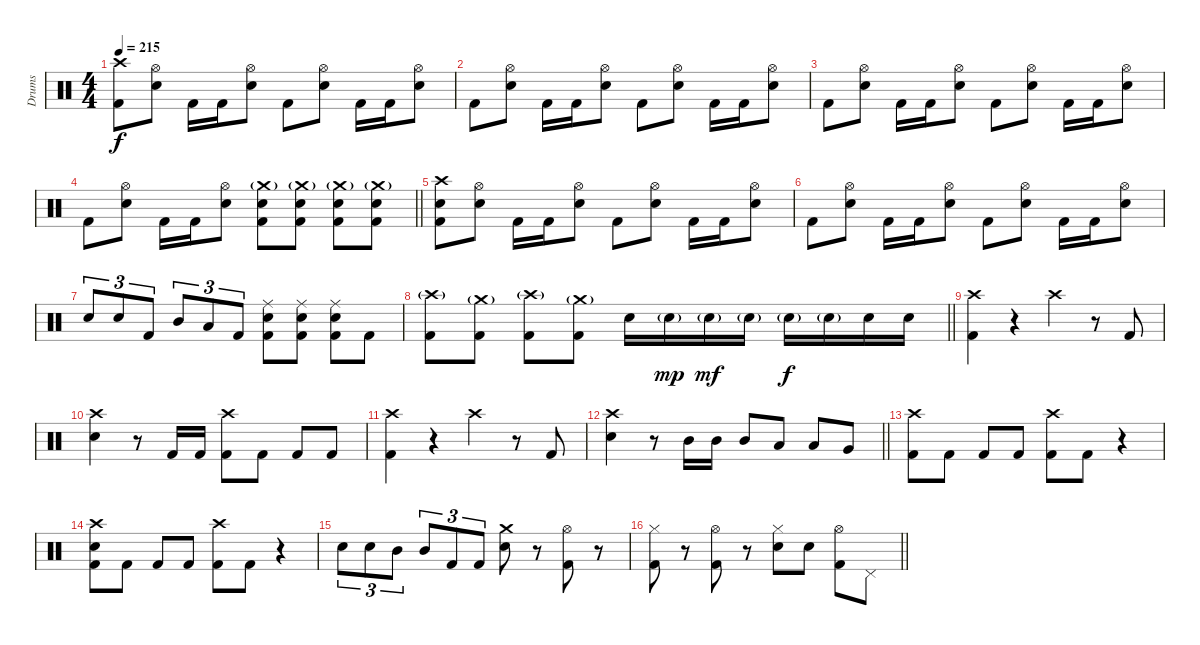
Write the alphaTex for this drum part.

\track ("Drums" "Drums") {instrument percussion}
\staff {score}
\articulation defaults
\ts (4 4)
\tempo 215
\clef neutral
\ks c
("Crash high (hit)" "Kick (hit) 2").8{dy f} ("Hi-Hat (open)" "Electric Snare (hit)").8 "Kick (hit) 2".16 "Kick (hit) 2".16 ("Hi-Hat (open)" "Electric Snare (hit)").8 "Kick (hit) 2".8 ("Hi-Hat (open)" "Electric Snare (hit)").8 "Kick (hit) 2".16 "Kick (hit) 2".16 ("Hi-Hat (open)" "Electric Snare (hit)").8 |
"Kick (hit) 2".8 ("Hi-Hat (open)" "Electric Snare (hit)").8 "Kick (hit) 2".16 "Kick (hit) 2".16 ("Hi-Hat (open)" "Electric Snare (hit)").8 "Kick (hit) 2".8 ("Hi-Hat (open)" "Electric Snare (hit)").8 "Kick (hit) 2".16 "Kick (hit) 2".16 ("Hi-Hat (open)" "Electric Snare (hit)").8 |
"Kick (hit) 2".8 ("Hi-Hat (open)" "Electric Snare (hit)").8 "Kick (hit) 2".16 "Kick (hit) 2".16 ("Hi-Hat (open)" "Electric Snare (hit)").8 "Kick (hit) 2".8 ("Hi-Hat (open)" "Electric Snare (hit)").8 "Kick (hit) 2".16 "Kick (hit) 2".16 ("Hi-Hat (open)" "Electric Snare (hit)").8 |
\barLineRight lightlight "Kick (hit) 2".8
("Hi-Hat (open)" "Electric Snare (hit)").8 "Kick (hit) 2".16 "Kick (hit) 2".16 ("Hi-Hat (open)" "Electric Snare (hit)").8 ("Crash medium (hit)"{g} "Electric Snare (hit)" "Kick (hit) 2").8 ("Crash medium (hit)"{g} "Electric Snare (hit)" "Kick (hit) 2").8 ("Crash medium (hit)"{g} "Electric Snare (hit)" "Kick (hit) 2").8 ("Crash medium (hit)"{g} "Electric Snare (hit)" "Kick (hit) 2").8 |
("Crash high (hit)" "Electric Snare (hit)" "Kick (hit) 2").8 ("Hi-Hat (open)" "Electric Snare (hit)").8 "Kick (hit) 2".16 "Kick (hit) 2".16 ("Hi-Hat (open)" "Electric Snare (hit)").8 "Kick (hit) 2".8 ("Hi-Hat (open)" "Electric Snare (hit)").8 "Kick (hit) 2".16 "Kick (hit) 2".16 ("Hi-Hat (open)" "Electric Snare (hit)").8 |
"Kick (hit) 2".8 ("Hi-Hat (open)" "Electric Snare (hit)").8 "Kick (hit) 2".16 "Kick (hit) 2".16 ("Hi-Hat (open)" "Electric Snare (hit)").8 "Kick (hit) 2".8 ("Hi-Hat (open)" "Electric Snare (hit)").8 "Kick (hit) 2".16 "Kick (hit) 2".16 ("Hi-Hat (open)" "Electric Snare (hit)").8 |
"Electric Snare (hit)".8{tu (3 2)} "Electric Snare (hit)".8{tu (3 2)} "Kick (hit) 2".8{tu (3 2)} "Mid Tom (hit)".8{tu (3 2)} "Low Tom (hit)".8{tu (3 2)} "Kick (hit) 2".8{tu (3 2)} ("Ride (middle)" "Electric Snare (hit)" "Kick (hit) 2").8 ("Ride (middle)" "Electric Snare (hit)" "Kick (hit) 2").8 ("Ride (middle)" "Electric Snare (hit)" "Kick (hit) 2").8 "Kick (hit) 2".8 |
\barLineRight lightlight
("Crash high (hit)"{g} "Kick (hit) 2").8 ("Crash medium (hit)"{g} "Kick (hit) 2").8 ("Crash high (hit)"{g} "Kick (hit) 2").8 ("Crash medium (hit)"{g} "Kick (hit) 2").8 "Electric Snare (hit)".16 "Electric Snare (hit)"{g}.16{dy mp} "Electric Snare (hit)"{g}.16{dy mf} "Electric Snare (hit)"{g}.16 "Electric Snare (hit)"{g}.16{dy f} "Electric Snare (hit)"{g}.16 "Electric Snare (hit)".16 "Electric Snare (hit)".16 |
("Crash high (hit)" "Kick (hit) 2").4 r.4 "Crash high (hit)".4 r.8 "Kick (hit) 2".8 |
("Crash high (hit)" "Electric Snare (hit)").4 r.8 "Kick (hit) 2".16 "Kick (hit) 2".16 ("Crash high (hit)" "Kick (hit) 2").8 "Kick (hit) 2".8 "Kick (hit) 2".8 "Kick (hit) 2".8 |
("Crash high (hit)" "Kick (hit) 2").4 r.4 "Crash high (hit)".4 r.8 "Kick (hit) 2".8 |
\barLineRight lightlight
("Crash high (hit)" "Electric Snare (hit)").4 r.8 "Mid Tom (hit)".16 "Mid Tom (hit)".16 "Mid Tom (hit)".8 "Low Tom (hit)".8 "Low Tom (hit)".8 "Very Low Tom (hit)".8 |
("Crash high (hit)" "Kick (hit) 2").8 "Kick (hit) 2".8 "Kick (hit) 2".8 "Kick (hit) 2".8 ("Crash high (hit)" "Kick (hit) 2").8 "Kick (hit) 2".8 r.4 |
("Crash high (hit)" "Electric Snare (hit)" "Kick (hit) 2").8 "Kick (hit) 2".8 "Kick (hit) 2".8 "Kick (hit) 2".8 ("Crash high (hit)" "Kick (hit) 2").8 "Kick (hit) 2".8 r.4 |
"Electric Snare (hit)".8{tu (3 2)} "Electric Snare (hit)".8{tu (3 2)} "Mid Tom (hit)".8{tu (3 2)} "Mid Tom (hit)".8{tu (3 2)} "Kick (hit) 2".8{tu (3 2)} "Kick (hit) 2".8{tu (3 2)} ("Crash medium (hit)" "Electric Snare (hit)").8 r.8 ("Hi-Hat (open)" "Kick (hit) 2").8 r.8 |
\barLineRight lightlight
("Hi-Hat (closed)" "Kick (hit) 2").8 r.8 ("Hi-Hat (open)" "Kick (hit) 2").8 r.8 ("Hi-Hat (closed)" "Electric Snare (hit)").8 "Electric Snare (hit)".8 ("Hi-Hat (open)" "Kick (hit) 2").8 "Pedal Hi-Hat (hit)".8
